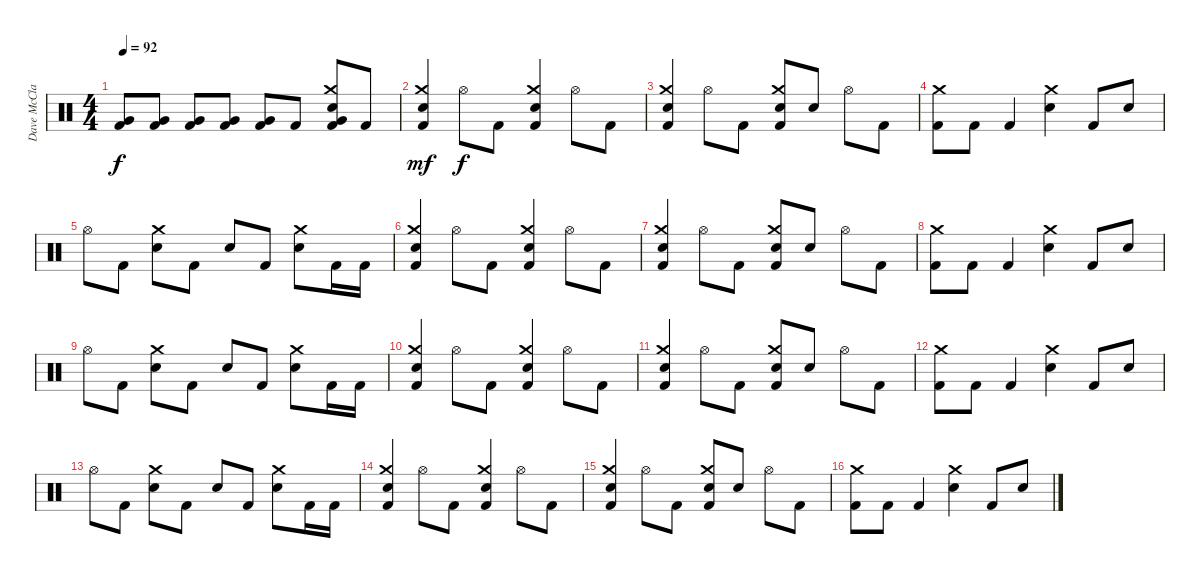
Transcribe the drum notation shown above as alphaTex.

\track ("Dave McClain" "Dave McCla") {instrument percussion}
\staff {score}
\articulation defaults
\ts (4 4)
\tempo 92
\clef neutral
\ks c
("Very Low Tom (hit)" "Kick (hit) 2").8{dy f} ("Very Low Tom (hit)" "Kick (hit) 2").8 ("Very Low Tom (hit)" "Kick (hit) 2").8 ("Very Low Tom (hit)" "Kick (hit) 2").8 ("Very Low Tom (hit)" "Kick (hit) 2").8 "Kick (hit) 2".8 ("Crash medium (hit)" "Very Low Tom (hit)" "Electric Snare (hit)" "Kick (hit) 2").8 "Kick (hit) 2".8 |
("Crash medium (hit)" "Electric Snare (hit)" "Kick (hit) 2").4{dy mf volume 16} "Hi-Hat (open)".8{dy f} "Kick (hit) 2".8 ("Crash medium (hit)" "Electric Snare (hit)" "Kick (hit) 2").4 "Hi-Hat (open)".8 "Kick (hit) 2".8 |
("Crash medium (hit)" "Electric Snare (hit)" "Kick (hit) 2").4 "Hi-Hat (open)".8 "Kick (hit) 2".8 ("Crash medium (hit)" "Electric Snare (hit)" "Kick (hit) 2").8 "Electric Snare (hit)".8 "Hi-Hat (open)".8 "Kick (hit) 2".8 |
("Crash medium (hit)" "Kick (hit) 2").8 "Kick (hit) 2".8 "Kick (hit) 2".4 ("Crash medium (hit)" "Electric Snare (hit)").4 "Kick (hit) 2".8 "Electric Snare (hit)".8 |
"Hi-Hat (open)".8 "Kick (hit) 2".8 ("Crash medium (hit)" "Electric Snare (hit)").8 "Kick (hit) 2".8 "Electric Snare (hit)".8 "Kick (hit) 2".8 ("Crash medium (hit)" "Electric Snare (hit)").8 "Kick (hit) 2".16 "Kick (hit) 2".16 |
("Crash medium (hit)" "Electric Snare (hit)" "Kick (hit) 2").4 "Hi-Hat (open)".8 "Kick (hit) 2".8 ("Crash medium (hit)" "Electric Snare (hit)" "Kick (hit) 2").4 "Hi-Hat (open)".8 "Kick (hit) 2".8 |
("Crash medium (hit)" "Electric Snare (hit)" "Kick (hit) 2").4 "Hi-Hat (open)".8 "Kick (hit) 2".8 ("Crash medium (hit)" "Electric Snare (hit)" "Kick (hit) 2").8 "Electric Snare (hit)".8 "Hi-Hat (open)".8 "Kick (hit) 2".8 |
("Crash medium (hit)" "Kick (hit) 2").8 "Kick (hit) 2".8 "Kick (hit) 2".4 ("Crash medium (hit)" "Electric Snare (hit)").4 "Kick (hit) 2".8 "Electric Snare (hit)".8 |
"Hi-Hat (open)".8 "Kick (hit) 2".8 ("Crash medium (hit)" "Electric Snare (hit)").8 "Kick (hit) 2".8 "Electric Snare (hit)".8 "Kick (hit) 2".8 ("Crash medium (hit)" "Electric Snare (hit)").8 "Kick (hit) 2".16 "Kick (hit) 2".16 |
("Crash medium (hit)" "Electric Snare (hit)" "Kick (hit) 2").4 "Hi-Hat (open)".8 "Kick (hit) 2".8 ("Crash medium (hit)" "Electric Snare (hit)" "Kick (hit) 2").4 "Hi-Hat (open)".8 "Kick (hit) 2".8 |
("Crash medium (hit)" "Electric Snare (hit)" "Kick (hit) 2").4 "Hi-Hat (open)".8 "Kick (hit) 2".8 ("Crash medium (hit)" "Electric Snare (hit)" "Kick (hit) 2").8 "Electric Snare (hit)".8 "Hi-Hat (open)".8 "Kick (hit) 2".8 |
("Crash medium (hit)" "Kick (hit) 2").8 "Kick (hit) 2".8 "Kick (hit) 2".4 ("Crash medium (hit)" "Electric Snare (hit)").4 "Kick (hit) 2".8 "Electric Snare (hit)".8 |
"Hi-Hat (open)".8 "Kick (hit) 2".8 ("Crash medium (hit)" "Electric Snare (hit)").8 "Kick (hit) 2".8 "Electric Snare (hit)".8 "Kick (hit) 2".8 ("Crash medium (hit)" "Electric Snare (hit)").8 "Kick (hit) 2".16 "Kick (hit) 2".16 |
("Crash medium (hit)" "Electric Snare (hit)" "Kick (hit) 2").4 "Hi-Hat (open)".8 "Kick (hit) 2".8 ("Crash medium (hit)" "Electric Snare (hit)" "Kick (hit) 2").4 "Hi-Hat (open)".8 "Kick (hit) 2".8 |
("Crash medium (hit)" "Electric Snare (hit)" "Kick (hit) 2").4 "Hi-Hat (open)".8 "Kick (hit) 2".8 ("Crash medium (hit)" "Electric Snare (hit)" "Kick (hit) 2").8 "Electric Snare (hit)".8 "Hi-Hat (open)".8 "Kick (hit) 2".8 |
("Crash medium (hit)" "Kick (hit) 2").8 "Kick (hit) 2".8 "Kick (hit) 2".4 ("Crash medium (hit)" "Electric Snare (hit)").4 "Kick (hit) 2".8 "Electric Snare (hit)".8
